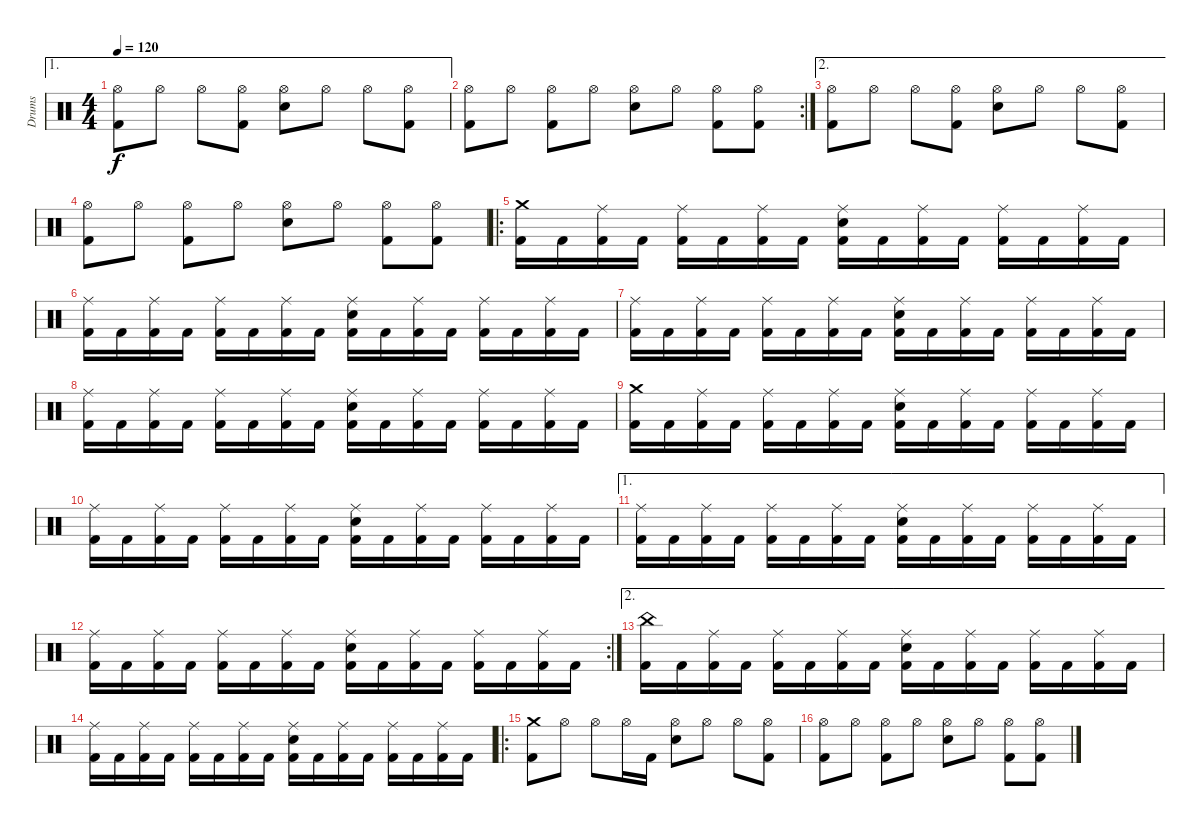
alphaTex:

\track ("Drums " "Drums ") {instrument percussion}
\staff {score}
\articulation defaults
\ae 1
\ts (4 4)
\tempo 120
\clef neutral
\ks c
("Hi-Hat (open)" "Kick (hit) 2").8{dy f} "Hi-Hat (open)".8 "Hi-Hat (open)".8 ("Hi-Hat (open)" "Kick (hit) 2").8 ("Hi-Hat (open)" "Snare (hit) 2").8 "Hi-Hat (open)".8 "Hi-Hat (open)".8 ("Hi-Hat (open)" "Kick (hit) 2").8 |
\rc 2
("Hi-Hat (open)" "Kick (hit) 2").8 "Hi-Hat (open)".8 ("Hi-Hat (open)" "Kick (hit) 2").8 "Hi-Hat (open)".8 ("Hi-Hat (open)" "Snare (hit) 2").8 "Hi-Hat (open)".8 ("Hi-Hat (open)" "Kick (hit) 2").8 ("Hi-Hat (open)" "Kick (hit) 2").8 |
\ae 2
("Hi-Hat (open)" "Kick (hit) 2").8 "Hi-Hat (open)".8 "Hi-Hat (open)".8 ("Hi-Hat (open)" "Kick (hit) 2").8 ("Hi-Hat (open)" "Snare (hit) 2").8 "Hi-Hat (open)".8 "Hi-Hat (open)".8 ("Hi-Hat (open)" "Kick (hit) 2").8 |
("Hi-Hat (open)" "Kick (hit) 2").8 "Hi-Hat (open)".8 ("Hi-Hat (open)" "Kick (hit) 2").8 "Hi-Hat (open)".8 ("Hi-Hat (open)" "Snare (hit) 2").8 "Hi-Hat (open)".8 ("Hi-Hat (open)" "Kick (hit) 2").8 ("Hi-Hat (open)" "Kick (hit) 2").8 |
\ro
("Crash medium (hit)" "Kick (hit) 2").16 "Kick (hit) 2".16 ("Ride (middle)" "Kick (hit) 2").16 "Kick (hit) 2".16 ("Ride (middle)" "Kick (hit) 2").16 "Kick (hit) 2".16 ("Ride (middle)" "Kick (hit) 2").16 "Kick (hit) 2".16 ("Ride (middle)" "Snare (hit) 2" "Kick (hit) 2").16 "Kick (hit) 2".16 ("Ride (middle)" "Kick (hit) 2").16 "Kick (hit) 2".16 ("Ride (middle)" "Kick (hit) 2").16 "Kick (hit) 2".16 ("Ride (middle)" "Kick (hit) 2").16 "Kick (hit) 2".16 |
("Ride (middle)" "Kick (hit) 2").16 "Kick (hit) 2".16 ("Ride (middle)" "Kick (hit) 2").16 "Kick (hit) 2".16 ("Ride (middle)" "Kick (hit) 2").16 "Kick (hit) 2".16 ("Ride (middle)" "Kick (hit) 2").16 "Kick (hit) 2".16 ("Ride (middle)" "Snare (hit) 2" "Kick (hit) 2").16 "Kick (hit) 2".16 ("Ride (middle)" "Kick (hit) 2").16 "Kick (hit) 2".16 ("Ride (middle)" "Kick (hit) 2").16 "Kick (hit) 2".16 ("Ride (middle)" "Kick (hit) 2").16 "Kick (hit) 2".16 |
("Ride (middle)" "Kick (hit) 2").16 "Kick (hit) 2".16 ("Ride (middle)" "Kick (hit) 2").16 "Kick (hit) 2".16 ("Ride (middle)" "Kick (hit) 2").16 "Kick (hit) 2".16 ("Ride (middle)" "Kick (hit) 2").16 "Kick (hit) 2".16 ("Ride (middle)" "Snare (hit) 2" "Kick (hit) 2").16 "Kick (hit) 2".16 ("Ride (middle)" "Kick (hit) 2").16 "Kick (hit) 2".16 ("Ride (middle)" "Kick (hit) 2").16 "Kick (hit) 2".16 ("Ride (middle)" "Kick (hit) 2").16 "Kick (hit) 2".16 |
("Ride (middle)" "Kick (hit) 2").16 "Kick (hit) 2".16 ("Ride (middle)" "Kick (hit) 2").16 "Kick (hit) 2".16 ("Ride (middle)" "Kick (hit) 2").16 "Kick (hit) 2".16 ("Ride (middle)" "Kick (hit) 2").16 "Kick (hit) 2".16 ("Ride (middle)" "Snare (hit) 2" "Kick (hit) 2").16 "Kick (hit) 2".16 ("Ride (middle)" "Kick (hit) 2").16 "Kick (hit) 2".16 ("Ride (middle)" "Kick (hit) 2").16 "Kick (hit) 2".16 ("Ride (middle)" "Kick (hit) 2").16 "Kick (hit) 2".16 |
("Crash medium (hit)" "Kick (hit) 2").16 "Kick (hit) 2".16 ("Ride (middle)" "Kick (hit) 2").16 "Kick (hit) 2".16 ("Ride (middle)" "Kick (hit) 2").16 "Kick (hit) 2".16 ("Ride (middle)" "Kick (hit) 2").16 "Kick (hit) 2".16 ("Ride (middle)" "Snare (hit) 2" "Kick (hit) 2").16 "Kick (hit) 2".16 ("Ride (middle)" "Kick (hit) 2").16 "Kick (hit) 2".16 ("Ride (middle)" "Kick (hit) 2").16 "Kick (hit) 2".16 ("Ride (middle)" "Kick (hit) 2").16 "Kick (hit) 2".16 |
("Ride (middle)" "Kick (hit) 2").16 "Kick (hit) 2".16 ("Ride (middle)" "Kick (hit) 2").16 "Kick (hit) 2".16 ("Ride (middle)" "Kick (hit) 2").16 "Kick (hit) 2".16 ("Ride (middle)" "Kick (hit) 2").16 "Kick (hit) 2".16 ("Ride (middle)" "Snare (hit) 2" "Kick (hit) 2").16 "Kick (hit) 2".16 ("Ride (middle)" "Kick (hit) 2").16 "Kick (hit) 2".16 ("Ride (middle)" "Kick (hit) 2").16 "Kick (hit) 2".16 ("Ride (middle)" "Kick (hit) 2").16 "Kick (hit) 2".16 |
\ae 1
("Ride (middle)" "Kick (hit) 2").16 "Kick (hit) 2".16 ("Ride (middle)" "Kick (hit) 2").16 "Kick (hit) 2".16 ("Ride (middle)" "Kick (hit) 2").16 "Kick (hit) 2".16 ("Ride (middle)" "Kick (hit) 2").16 "Kick (hit) 2".16 ("Ride (middle)" "Snare (hit) 2" "Kick (hit) 2").16 "Kick (hit) 2".16 ("Ride (middle)" "Kick (hit) 2").16 "Kick (hit) 2".16 ("Ride (middle)" "Kick (hit) 2").16 "Kick (hit) 2".16 ("Ride (middle)" "Kick (hit) 2").16 "Kick (hit) 2".16 |
\rc 2
("Ride (middle)" "Kick (hit) 2").16 "Kick (hit) 2".16 ("Ride (middle)" "Kick (hit) 2").16 "Kick (hit) 2".16 ("Ride (middle)" "Kick (hit) 2").16 "Kick (hit) 2".16 ("Ride (middle)" "Kick (hit) 2").16 "Kick (hit) 2".16 ("Ride (middle)" "Snare (hit) 2" "Kick (hit) 2").16 "Kick (hit) 2".16 ("Ride (middle)" "Kick (hit) 2").16 "Kick (hit) 2".16 ("Ride (middle)" "Kick (hit) 2").16 "Kick (hit) 2".16 ("Ride (middle)" "Kick (hit) 2").16 "Kick (hit) 2".16 |
\ae 2
("China (hit)" "Kick (hit) 2").16 "Kick (hit) 2".16 ("Ride (middle)" "Kick (hit) 2").16 "Kick (hit) 2".16 ("Ride (middle)" "Kick (hit) 2").16 "Kick (hit) 2".16 ("Ride (middle)" "Kick (hit) 2").16 "Kick (hit) 2".16 ("Ride (middle)" "Snare (hit) 2" "Kick (hit) 2").16 "Kick (hit) 2".16 ("Ride (middle)" "Kick (hit) 2").16 "Kick (hit) 2".16 ("Ride (middle)" "Kick (hit) 2").16 "Kick (hit) 2".16 ("Ride (middle)" "Kick (hit) 2").16 "Kick (hit) 2".16 |
("Ride (middle)" "Kick (hit) 2").16 "Kick (hit) 2".16 ("Ride (middle)" "Kick (hit) 2").16 "Kick (hit) 2".16 ("Ride (middle)" "Kick (hit) 2").16 "Kick (hit) 2".16 ("Ride (middle)" "Kick (hit) 2").16 "Kick (hit) 2".16 ("Ride (middle)" "Snare (hit) 2" "Kick (hit) 2").16 "Kick (hit) 2".16 ("Ride (middle)" "Kick (hit) 2").16 "Kick (hit) 2".16 ("Ride (middle)" "Kick (hit) 2").16 "Kick (hit) 2".16 ("Ride (middle)" "Kick (hit) 2").16 "Kick (hit) 2".16 |
\ro
("Crash medium (hit)" "Kick (hit) 2").8 "Hi-Hat (open)".8 "Hi-Hat (open)".8 "Hi-Hat (open)".16 "Kick (hit) 2".16 ("Hi-Hat (open)" "Snare (hit) 2").8 "Hi-Hat (open)".8 "Hi-Hat (open)".8 ("Hi-Hat (open)" "Kick (hit) 2").8 |
("Hi-Hat (open)" "Kick (hit) 2").8 "Hi-Hat (open)".8 ("Hi-Hat (open)" "Kick (hit) 2").8 "Hi-Hat (open)".8 ("Hi-Hat (open)" "Snare (hit) 2").8 "Hi-Hat (open)".8 ("Hi-Hat (open)" "Kick (hit) 2").8 ("Hi-Hat (open)" "Kick (hit) 2").8
